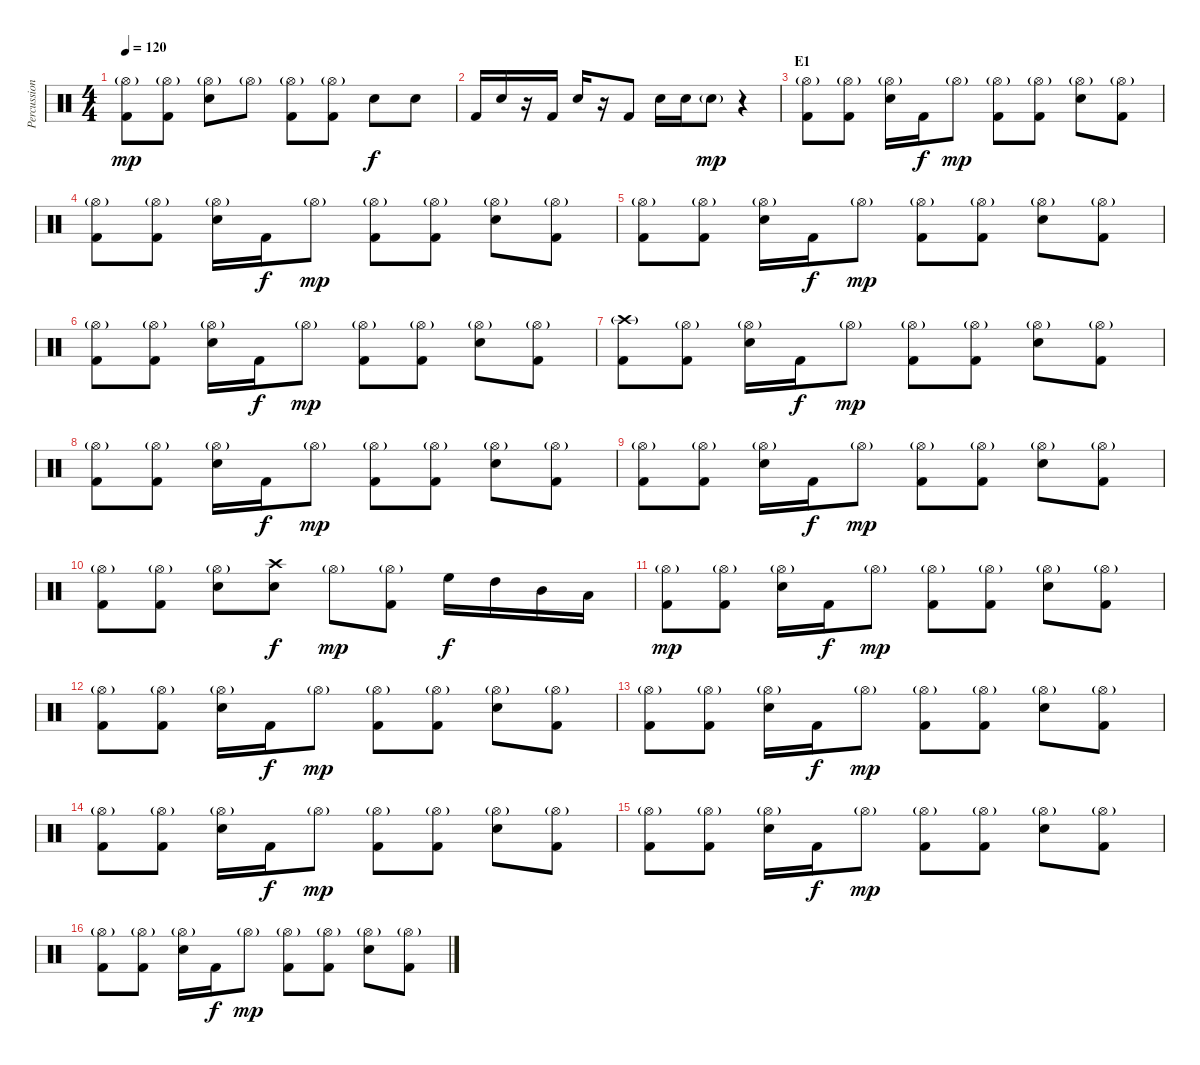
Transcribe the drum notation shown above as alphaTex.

\track ("Percussion" "Percussion") {instrument percussion}
\staff {score}
\articulation defaults
\ts (4 4)
\tempo 120
\clef neutral
\ks c
("Hi-Hat (open)"{g} "Kick (hit) 2").8{dy mp} ("Hi-Hat (open)"{g} "Kick (hit) 2").8 ("Hi-Hat (open)"{g} "Snare (hit) 2").8 "Hi-Hat (open)"{g}.8 ("Hi-Hat (open)"{g} "Kick (hit) 2").8 ("Hi-Hat (open)"{g} "Kick (hit) 2").8 "Snare (hit) 2".8{dy f} "Snare (hit) 2".8 |
"Kick (hit) 2".16 "Snare (hit) 2".16 r.16 "Kick (hit) 2".16 "Snare (hit) 2".16 r.16 "Kick (hit) 2".8 "Snare (hit) 2".16 "Snare (hit) 2".16 "Snare (hit) 2"{g}.8{dy mp} r.4 |
\section ("" "E1")
("Hi-Hat (open)"{g} "Kick (hit) 2").8 ("Hi-Hat (open)"{g} "Kick (hit) 2").8 ("Hi-Hat (open)"{g} "Snare (hit) 2").16 "Kick (hit) 2".16{dy f} "Hi-Hat (open)"{g}.8{dy mp} ("Hi-Hat (open)"{g} "Kick (hit) 2").8 ("Hi-Hat (open)"{g} "Kick (hit) 2").8 ("Hi-Hat (open)"{g} "Snare (hit) 2").8 ("Hi-Hat (open)"{g} "Kick (hit) 2").8 |
("Hi-Hat (open)"{g} "Kick (hit) 2").8 ("Hi-Hat (open)"{g} "Kick (hit) 2").8 ("Hi-Hat (open)"{g} "Snare (hit) 2").16 "Kick (hit) 2".16{dy f} "Hi-Hat (open)"{g}.8{dy mp} ("Hi-Hat (open)"{g} "Kick (hit) 2").8 ("Hi-Hat (open)"{g} "Kick (hit) 2").8 ("Hi-Hat (open)"{g} "Snare (hit) 2").8 ("Hi-Hat (open)"{g} "Kick (hit) 2").8 |
("Hi-Hat (open)"{g} "Kick (hit) 2").8 ("Hi-Hat (open)"{g} "Kick (hit) 2").8 ("Hi-Hat (open)"{g} "Snare (hit) 2").16 "Kick (hit) 2".16{dy f} "Hi-Hat (open)"{g}.8{dy mp} ("Hi-Hat (open)"{g} "Kick (hit) 2").8 ("Hi-Hat (open)"{g} "Kick (hit) 2").8 ("Hi-Hat (open)"{g} "Snare (hit) 2").8 ("Hi-Hat (open)"{g} "Kick (hit) 2").8 |
("Hi-Hat (open)"{g} "Kick (hit) 2").8 ("Hi-Hat (open)"{g} "Kick (hit) 2").8 ("Hi-Hat (open)"{g} "Snare (hit) 2").16 "Kick (hit) 2".16{dy f} "Hi-Hat (open)"{g}.8{dy mp} ("Hi-Hat (open)"{g} "Kick (hit) 2").8 ("Hi-Hat (open)"{g} "Kick (hit) 2").8 ("Hi-Hat (open)"{g} "Snare (hit) 2").8 ("Hi-Hat (open)"{g} "Kick (hit) 2").8 |
("Crash high (hit)"{g} "Kick (hit) 2").8 ("Hi-Hat (open)"{g} "Kick (hit) 2").8 ("Hi-Hat (open)"{g} "Snare (hit) 2").16 "Kick (hit) 2".16{dy f} "Hi-Hat (open)"{g}.8{dy mp} ("Hi-Hat (open)"{g} "Kick (hit) 2").8 ("Hi-Hat (open)"{g} "Kick (hit) 2").8 ("Hi-Hat (open)"{g} "Snare (hit) 2").8 ("Hi-Hat (open)"{g} "Kick (hit) 2").8 |
("Hi-Hat (open)"{g} "Kick (hit) 2").8 ("Hi-Hat (open)"{g} "Kick (hit) 2").8 ("Hi-Hat (open)"{g} "Snare (hit) 2").16 "Kick (hit) 2".16{dy f} "Hi-Hat (open)"{g}.8{dy mp} ("Hi-Hat (open)"{g} "Kick (hit) 2").8 ("Hi-Hat (open)"{g} "Kick (hit) 2").8 ("Hi-Hat (open)"{g} "Snare (hit) 2").8 ("Hi-Hat (open)"{g} "Kick (hit) 2").8 |
("Hi-Hat (open)"{g} "Kick (hit) 2").8 ("Hi-Hat (open)"{g} "Kick (hit) 2").8 ("Hi-Hat (open)"{g} "Snare (hit) 2").16 "Kick (hit) 2".16{dy f} "Hi-Hat (open)"{g}.8{dy mp} ("Hi-Hat (open)"{g} "Kick (hit) 2").8 ("Hi-Hat (open)"{g} "Kick (hit) 2").8 ("Hi-Hat (open)"{g} "Snare (hit) 2").8 ("Hi-Hat (open)"{g} "Kick (hit) 2").8 |
("Hi-Hat (open)"{g} "Kick (hit) 2").8 ("Hi-Hat (open)"{g} "Kick (hit) 2").8 ("Hi-Hat (open)"{g} "Snare (hit) 2").8 ("Crash high (hit)" "Snare (hit) 2").8{dy f} "Hi-Hat (open)"{g}.8{dy mp} ("Hi-Hat (open)"{g} "Kick (hit) 2").8 "High Floor Tom (hit)".16{dy f} "High Tom (hit)".16 "Mid Tom (hit)".16 "Low Tom (hit)".16 |
("Hi-Hat (open)"{g} "Kick (hit) 2").8{dy mp} ("Hi-Hat (open)"{g} "Kick (hit) 2").8 ("Hi-Hat (open)"{g} "Snare (hit) 2").16 "Kick (hit) 2".16{dy f} "Hi-Hat (open)"{g}.8{dy mp} ("Hi-Hat (open)"{g} "Kick (hit) 2").8 ("Hi-Hat (open)"{g} "Kick (hit) 2").8 ("Hi-Hat (open)"{g} "Snare (hit) 2").8 ("Hi-Hat (open)"{g} "Kick (hit) 2").8 |
("Hi-Hat (open)"{g} "Kick (hit) 2").8 ("Hi-Hat (open)"{g} "Kick (hit) 2").8 ("Hi-Hat (open)"{g} "Snare (hit) 2").16 "Kick (hit) 2".16{dy f} "Hi-Hat (open)"{g}.8{dy mp} ("Hi-Hat (open)"{g} "Kick (hit) 2").8 ("Hi-Hat (open)"{g} "Kick (hit) 2").8 ("Hi-Hat (open)"{g} "Snare (hit) 2").8 ("Hi-Hat (open)"{g} "Kick (hit) 2").8 |
("Hi-Hat (open)"{g} "Kick (hit) 2").8 ("Hi-Hat (open)"{g} "Kick (hit) 2").8 ("Hi-Hat (open)"{g} "Snare (hit) 2").16 "Kick (hit) 2".16{dy f} "Hi-Hat (open)"{g}.8{dy mp} ("Hi-Hat (open)"{g} "Kick (hit) 2").8 ("Hi-Hat (open)"{g} "Kick (hit) 2").8 ("Hi-Hat (open)"{g} "Snare (hit) 2").8 ("Hi-Hat (open)"{g} "Kick (hit) 2").8 |
("Hi-Hat (open)"{g} "Kick (hit) 2").8 ("Hi-Hat (open)"{g} "Kick (hit) 2").8 ("Hi-Hat (open)"{g} "Snare (hit) 2").16 "Kick (hit) 2".16{dy f} "Hi-Hat (open)"{g}.8{dy mp} ("Hi-Hat (open)"{g} "Kick (hit) 2").8 ("Hi-Hat (open)"{g} "Kick (hit) 2").8 ("Hi-Hat (open)"{g} "Snare (hit) 2").8 ("Hi-Hat (open)"{g} "Kick (hit) 2").8 |
("Hi-Hat (open)"{g} "Kick (hit) 2").8 ("Hi-Hat (open)"{g} "Kick (hit) 2").8 ("Hi-Hat (open)"{g} "Snare (hit) 2").16 "Kick (hit) 2".16{dy f} "Hi-Hat (open)"{g}.8{dy mp} ("Hi-Hat (open)"{g} "Kick (hit) 2").8 ("Hi-Hat (open)"{g} "Kick (hit) 2").8 ("Hi-Hat (open)"{g} "Snare (hit) 2").8 ("Hi-Hat (open)"{g} "Kick (hit) 2").8 |
("Hi-Hat (open)"{g} "Kick (hit) 2").8 ("Hi-Hat (open)"{g} "Kick (hit) 2").8 ("Hi-Hat (open)"{g} "Snare (hit) 2").16 "Kick (hit) 2".16{dy f} "Hi-Hat (open)"{g}.8{dy mp} ("Hi-Hat (open)"{g} "Kick (hit) 2").8 ("Hi-Hat (open)"{g} "Kick (hit) 2").8 ("Hi-Hat (open)"{g} "Snare (hit) 2").8 ("Hi-Hat (open)"{g} "Kick (hit) 2").8
